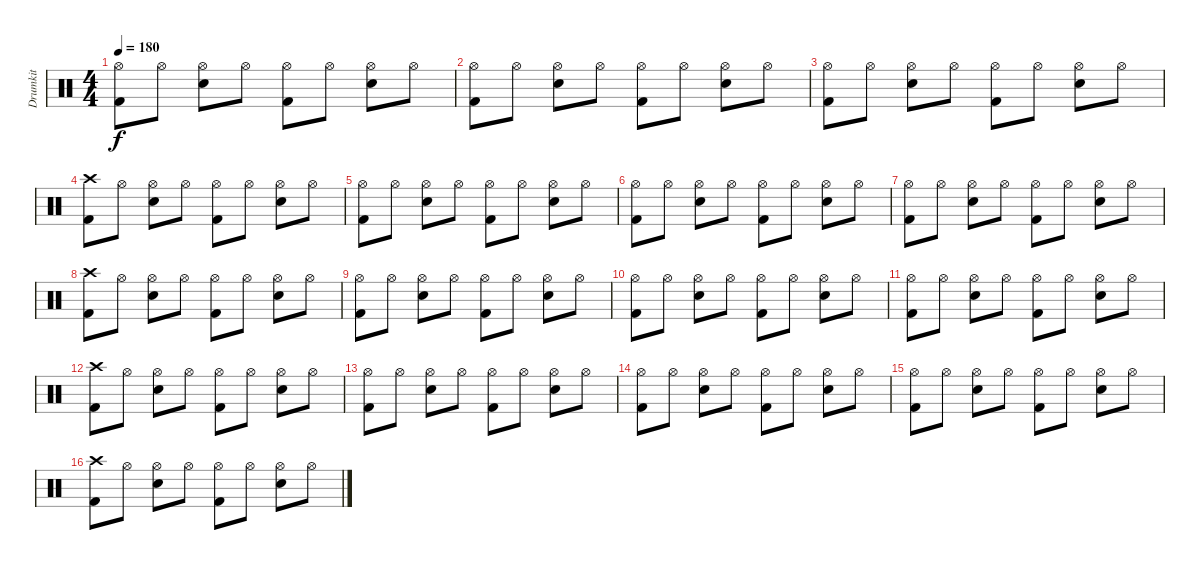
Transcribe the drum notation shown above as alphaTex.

\track ("Drumkit" "Drumkit") {instrument percussion}
\staff {score}
\articulation defaults
\ts (4 4)
\tempo 180
\clef neutral
\ks c
("Kick (hit) 2" "Hi-Hat (open)").8{dy f} "Hi-Hat (open)".8 ("Snare (hit) 2" "Hi-Hat (open)").8 "Hi-Hat (open)".8 ("Kick (hit) 2" "Hi-Hat (open)").8 "Hi-Hat (open)".8 ("Snare (hit) 2" "Hi-Hat (open)").8 "Hi-Hat (open)".8 |
("Kick (hit) 2" "Hi-Hat (open)").8 "Hi-Hat (open)".8 ("Snare (hit) 2" "Hi-Hat (open)").8 "Hi-Hat (open)".8 ("Kick (hit) 2" "Hi-Hat (open)").8 "Hi-Hat (open)".8 ("Snare (hit) 2" "Hi-Hat (open)").8 "Hi-Hat (open)".8 |
("Kick (hit) 2" "Hi-Hat (open)").8 "Hi-Hat (open)".8 ("Snare (hit) 2" "Hi-Hat (open)").8 "Hi-Hat (open)".8 ("Kick (hit) 2" "Hi-Hat (open)").8 "Hi-Hat (open)".8 ("Snare (hit) 2" "Hi-Hat (open)").8 "Hi-Hat (open)".8 |
("Crash high (hit)" "Kick (hit) 2").8 "Hi-Hat (open)".8 ("Snare (hit) 2" "Hi-Hat (open)").8 "Hi-Hat (open)".8 ("Kick (hit) 2" "Hi-Hat (open)").8 "Hi-Hat (open)".8 ("Snare (hit) 2" "Hi-Hat (open)").8 "Hi-Hat (open)".8 |
("Kick (hit) 2" "Hi-Hat (open)").8 "Hi-Hat (open)".8 ("Snare (hit) 2" "Hi-Hat (open)").8 "Hi-Hat (open)".8 ("Kick (hit) 2" "Hi-Hat (open)").8 "Hi-Hat (open)".8 ("Snare (hit) 2" "Hi-Hat (open)").8 "Hi-Hat (open)".8 |
("Kick (hit) 2" "Hi-Hat (open)").8 "Hi-Hat (open)".8 ("Snare (hit) 2" "Hi-Hat (open)").8 "Hi-Hat (open)".8 ("Kick (hit) 2" "Hi-Hat (open)").8 "Hi-Hat (open)".8 ("Snare (hit) 2" "Hi-Hat (open)").8 "Hi-Hat (open)".8 |
("Kick (hit) 2" "Hi-Hat (open)").8 "Hi-Hat (open)".8 ("Snare (hit) 2" "Hi-Hat (open)").8 "Hi-Hat (open)".8 ("Kick (hit) 2" "Hi-Hat (open)").8 "Hi-Hat (open)".8 ("Snare (hit) 2" "Hi-Hat (open)").8 "Hi-Hat (open)".8 |
("Crash high (hit)" "Kick (hit) 2").8 "Hi-Hat (open)".8 ("Snare (hit) 2" "Hi-Hat (open)").8 "Hi-Hat (open)".8 ("Kick (hit) 2" "Hi-Hat (open)").8 "Hi-Hat (open)".8 ("Snare (hit) 2" "Hi-Hat (open)").8 "Hi-Hat (open)".8 |
("Kick (hit) 2" "Hi-Hat (open)").8 "Hi-Hat (open)".8 ("Snare (hit) 2" "Hi-Hat (open)").8 "Hi-Hat (open)".8 ("Kick (hit) 2" "Hi-Hat (open)").8 "Hi-Hat (open)".8 ("Snare (hit) 2" "Hi-Hat (open)").8 "Hi-Hat (open)".8 |
("Kick (hit) 2" "Hi-Hat (open)").8 "Hi-Hat (open)".8 ("Snare (hit) 2" "Hi-Hat (open)").8 "Hi-Hat (open)".8 ("Kick (hit) 2" "Hi-Hat (open)").8 "Hi-Hat (open)".8 ("Snare (hit) 2" "Hi-Hat (open)").8 "Hi-Hat (open)".8 |
("Kick (hit) 2" "Hi-Hat (open)").8 "Hi-Hat (open)".8 ("Snare (hit) 2" "Hi-Hat (open)").8 "Hi-Hat (open)".8 ("Kick (hit) 2" "Hi-Hat (open)").8 "Hi-Hat (open)".8 ("Snare (hit) 2" "Hi-Hat (open)").8 "Hi-Hat (open)".8 |
("Crash high (hit)" "Kick (hit) 2").8 "Hi-Hat (open)".8 ("Snare (hit) 2" "Hi-Hat (open)").8 "Hi-Hat (open)".8 ("Kick (hit) 2" "Hi-Hat (open)").8 "Hi-Hat (open)".8 ("Snare (hit) 2" "Hi-Hat (open)").8 "Hi-Hat (open)".8 |
("Kick (hit) 2" "Hi-Hat (open)").8 "Hi-Hat (open)".8 ("Snare (hit) 2" "Hi-Hat (open)").8 "Hi-Hat (open)".8 ("Kick (hit) 2" "Hi-Hat (open)").8 "Hi-Hat (open)".8 ("Snare (hit) 2" "Hi-Hat (open)").8 "Hi-Hat (open)".8 |
("Kick (hit) 2" "Hi-Hat (open)").8 "Hi-Hat (open)".8 ("Snare (hit) 2" "Hi-Hat (open)").8 "Hi-Hat (open)".8 ("Kick (hit) 2" "Hi-Hat (open)").8 "Hi-Hat (open)".8 ("Snare (hit) 2" "Hi-Hat (open)").8 "Hi-Hat (open)".8 |
("Kick (hit) 2" "Hi-Hat (open)").8 "Hi-Hat (open)".8 ("Snare (hit) 2" "Hi-Hat (open)").8 "Hi-Hat (open)".8 ("Kick (hit) 2" "Hi-Hat (open)").8 "Hi-Hat (open)".8 ("Snare (hit) 2" "Hi-Hat (open)").8 "Hi-Hat (open)".8 |
("Crash high (hit)" "Kick (hit) 2").8 "Hi-Hat (open)".8 ("Snare (hit) 2" "Hi-Hat (open)").8 "Hi-Hat (open)".8 ("Kick (hit) 2" "Hi-Hat (open)").8 "Hi-Hat (open)".8 ("Snare (hit) 2" "Hi-Hat (open)").8 "Hi-Hat (open)".8
